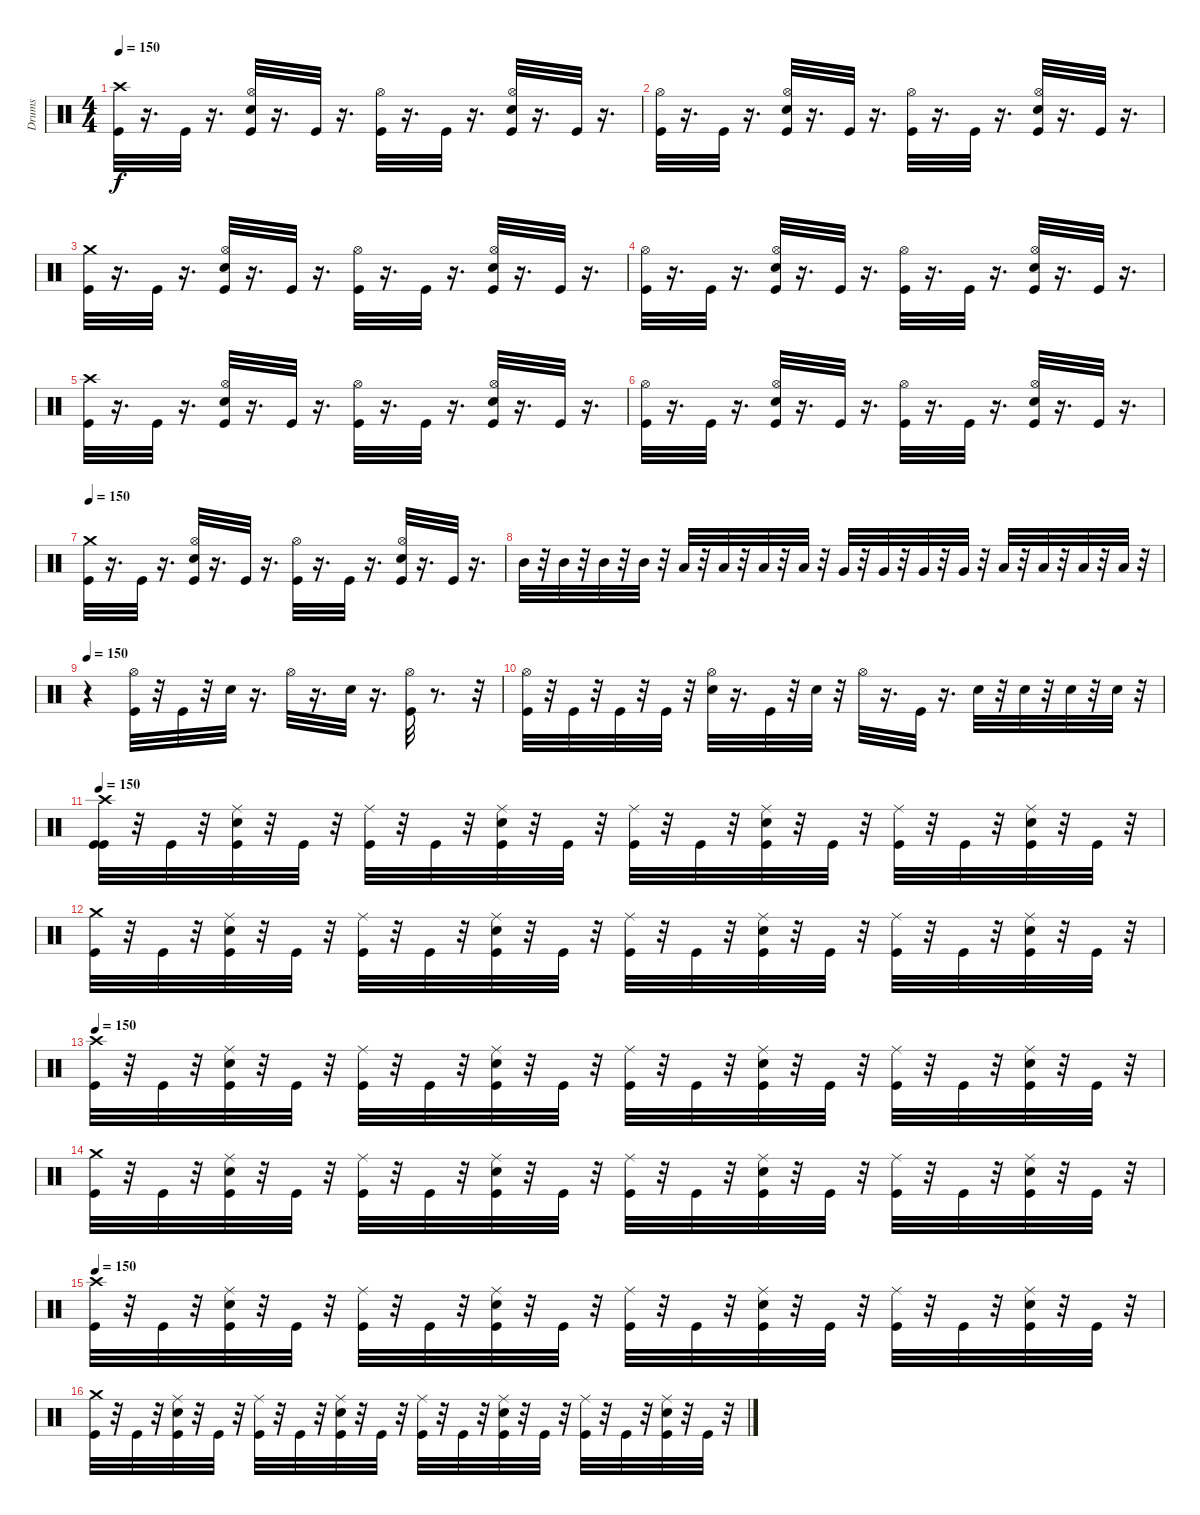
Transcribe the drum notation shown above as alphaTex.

\track ("Drums" "Drums") {instrument percussion}
\staff {score}
\articulation defaults
\ts (4 4)
\tempo 150
\clef neutral
\ks c
("Crash high (hit)" "Kick (hit)").32{dy f} r.16{d} "Kick (hit)".32 r.16{d} ("Hi-Hat (open)" "Electric Snare (hit)" "Kick (hit)").32 r.16{d} "Kick (hit)".32 r.16{d} ("Hi-Hat (open)" "Kick (hit)").32 r.16{d} "Kick (hit)".32 r.16{d} ("Hi-Hat (open)" "Electric Snare (hit)" "Kick (hit)").32 r.16{d} "Kick (hit)".32 r.16{d} |
("Hi-Hat (open)" "Kick (hit)").32 r.16{d} "Kick (hit)".32 r.16{d} ("Hi-Hat (open)" "Electric Snare (hit)" "Kick (hit)").32 r.16{d} "Kick (hit)".32 r.16{d} ("Hi-Hat (open)" "Kick (hit)").32 r.16{d} "Kick (hit)".32 r.16{d} ("Hi-Hat (open)" "Electric Snare (hit)" "Kick (hit)").32 r.16{d} "Kick (hit)".32 r.16{d} |
("Crash medium (hit)" "Kick (hit)").32 r.16{d} "Kick (hit)".32 r.16{d} ("Hi-Hat (open)" "Electric Snare (hit)" "Kick (hit)").32 r.16{d} "Kick (hit)".32 r.16{d} ("Hi-Hat (open)" "Kick (hit)").32 r.16{d} "Kick (hit)".32 r.16{d} ("Hi-Hat (open)" "Electric Snare (hit)" "Kick (hit)").32 r.16{d} "Kick (hit)".32 r.16{d} |
("Hi-Hat (open)" "Kick (hit)").32 r.16{d} "Kick (hit)".32 r.16{d} ("Hi-Hat (open)" "Electric Snare (hit)" "Kick (hit)").32 r.16{d} "Kick (hit)".32 r.16{d} ("Hi-Hat (open)" "Kick (hit)").32 r.16{d} "Kick (hit)".32 r.16{d} ("Hi-Hat (open)" "Electric Snare (hit)" "Kick (hit)").32 r.16{d} "Kick (hit)".32 r.16{d} |
("Crash high (hit)" "Kick (hit)").32 r.16{d} "Kick (hit)".32 r.16{d} ("Hi-Hat (open)" "Electric Snare (hit)" "Kick (hit)").32 r.16{d} "Kick (hit)".32 r.16{d} ("Hi-Hat (open)" "Kick (hit)").32 r.16{d} "Kick (hit)".32 r.16{d} ("Hi-Hat (open)" "Electric Snare (hit)" "Kick (hit)").32 r.16{d} "Kick (hit)".32 r.16{d} |
("Hi-Hat (open)" "Kick (hit)").32 r.16{d} "Kick (hit)".32 r.16{d} ("Hi-Hat (open)" "Electric Snare (hit)" "Kick (hit)").32 r.16{d} "Kick (hit)".32 r.16{d} ("Hi-Hat (open)" "Kick (hit)").32 r.16{d} "Kick (hit)".32 r.16{d} ("Hi-Hat (open)" "Electric Snare (hit)" "Kick (hit)").32 r.16{d} "Kick (hit)".32 r.16{d} |
\tempo 150
("Crash medium (hit)" "Kick (hit)").32 r.16{d} "Kick (hit)".32 r.16{d} ("Hi-Hat (open)" "Electric Snare (hit)" "Kick (hit)").32 r.16{d} "Kick (hit)".32 r.16{d} ("Hi-Hat (open)" "Kick (hit)").32 r.16{d} "Kick (hit)".32 r.16{d} ("Hi-Hat (open)" "Electric Snare (hit)" "Kick (hit)").32 r.16{d} "Kick (hit)".32 r.16{d} |
"Mid Tom (hit)".32 r.32 "Mid Tom (hit)".32 r.32 "Mid Tom (hit)".32 r.32 "Mid Tom (hit)".32 r.32 "Low Tom (hit)".32 r.32 "Low Tom (hit)".32 r.32 "Low Tom (hit)".32 r.32 "Low Tom (hit)".32 r.32 "Very Low Tom (hit)".32 r.32 "Very Low Tom (hit)".32 r.32 "Very Low Tom (hit)".32 r.32 "Very Low Tom (hit)".32 r.32 "Low Floor Tom (hit)".32 r.32 "Low Floor Tom (hit)".32 r.32 "Low Floor Tom (hit)".32 r.32 "Low Floor Tom (hit)".32 r.32 |
\tempo 150
r.4 ("Hi-Hat (open)" "Kick (hit)").32 r.32 "Kick (hit)".32 r.32 "Electric Snare (hit)".32 r.16{d} "Hi-Hat (open)".32 r.16{d} "Electric Snare (hit)".32 r.16{d} ("Hi-Hat (open)" "Kick (hit)").32 r.8{d} r.32 |
("Hi-Hat (open)" "Kick (hit)").32 r.32 "Kick (hit)".32 r.32 "Kick (hit)".32 r.32 "Kick (hit)".32 r.32 ("Hi-Hat (open)" "Electric Snare (hit)").32 r.16{d} "Kick (hit)".32 r.32 "Electric Snare (hit)".32 r.32 "Hi-Hat (open)".32 r.16{d} "Kick (hit)".32 r.16{d} "Electric Snare (hit)".32 r.32 "Electric Snare (hit)".32 r.32 "Electric Snare (hit)".32 r.32 "Electric Snare (hit)".32 r.32 |
\tempo 150
("Kick (hit)" "Crash high (hit)" "Kick (hit)").32 r.32 "Kick (hit)".32 r.32 ("Ride (middle)" "Electric Snare (hit)" "Kick (hit)").32 r.32 "Kick (hit)".32 r.32 ("Ride (middle)" "Kick (hit)").32 r.32 "Kick (hit)".32 r.32 ("Ride (middle)" "Electric Snare (hit)" "Kick (hit)").32 r.32 "Kick (hit)".32 r.32 ("Ride (middle)" "Kick (hit)").32 r.32 "Kick (hit)".32 r.32 ("Ride (middle)" "Electric Snare (hit)" "Kick (hit)").32 r.32 "Kick (hit)".32 r.32 ("Ride (middle)" "Kick (hit)").32 r.32 "Kick (hit)".32 r.32 ("Ride (middle)" "Electric Snare (hit)" "Kick (hit)").32 r.32 "Kick (hit)".32 r.32 |
("Crash medium (hit)" "Kick (hit)").32 r.32 "Kick (hit)".32 r.32 ("Ride (middle)" "Electric Snare (hit)" "Kick (hit)").32 r.32 "Kick (hit)".32 r.32 ("Ride (middle)" "Kick (hit)").32 r.32 "Kick (hit)".32 r.32 ("Ride (middle)" "Electric Snare (hit)" "Kick (hit)").32 r.32 "Kick (hit)".32 r.32 ("Ride (middle)" "Kick (hit)").32 r.32 "Kick (hit)".32 r.32 ("Ride (middle)" "Electric Snare (hit)" "Kick (hit)").32 r.32 "Kick (hit)".32 r.32 ("Ride (middle)" "Kick (hit)").32 r.32 "Kick (hit)".32 r.32 ("Ride (middle)" "Electric Snare (hit)" "Kick (hit)").32 r.32 "Kick (hit)".32 r.32 |
\tempo 150
("Crash high (hit)" "Kick (hit)").32 r.32 "Kick (hit)".32 r.32 ("Ride (middle)" "Electric Snare (hit)" "Kick (hit)").32 r.32 "Kick (hit)".32 r.32 ("Ride (middle)" "Kick (hit)").32 r.32 "Kick (hit)".32 r.32 ("Ride (middle)" "Electric Snare (hit)" "Kick (hit)").32 r.32 "Kick (hit)".32 r.32 ("Ride (middle)" "Kick (hit)").32 r.32 "Kick (hit)".32 r.32 ("Ride (middle)" "Electric Snare (hit)" "Kick (hit)").32 r.32 "Kick (hit)".32 r.32 ("Ride (middle)" "Kick (hit)").32 r.32 "Kick (hit)".32 r.32 ("Ride (middle)" "Electric Snare (hit)" "Kick (hit)").32 r.32 "Kick (hit)".32 r.32 |
("Kick (hit)" "Crash medium (hit)").32 r.32 "Kick (hit)".32 r.32 ("Kick (hit)" "Electric Snare (hit)" "Ride (middle)").32 r.32 "Kick (hit)".32 r.32 ("Kick (hit)" "Ride (middle)").32 r.32 "Kick (hit)".32 r.32 ("Kick (hit)" "Electric Snare (hit)" "Ride (middle)").32 r.32 "Kick (hit)".32 r.32 ("Kick (hit)" "Ride (middle)").32 r.32 "Kick (hit)".32 r.32 ("Kick (hit)" "Electric Snare (hit)" "Ride (middle)").32 r.32 "Kick (hit)".32 r.32 ("Kick (hit)" "Ride (middle)").32 r.32 "Kick (hit)".32 r.32 ("Kick (hit)" "Electric Snare (hit)" "Ride (middle)").32 r.32 "Kick (hit)".32 r.32 |
\tempo 150
("Crash high (hit)" "Kick (hit)").32 r.32 "Kick (hit)".32 r.32 ("Ride (middle)" "Electric Snare (hit)" "Kick (hit)").32 r.32 "Kick (hit)".32 r.32 ("Ride (middle)" "Kick (hit)").32 r.32 "Kick (hit)".32 r.32 ("Ride (middle)" "Electric Snare (hit)" "Kick (hit)").32 r.32 "Kick (hit)".32 r.32 ("Ride (middle)" "Kick (hit)").32 r.32 "Kick (hit)".32 r.32 ("Ride (middle)" "Electric Snare (hit)" "Kick (hit)").32 r.32 "Kick (hit)".32 r.32 ("Ride (middle)" "Kick (hit)").32 r.32 "Kick (hit)".32 r.32 ("Ride (middle)" "Electric Snare (hit)" "Kick (hit)").32 r.32 "Kick (hit)".32 r.32 |
("Kick (hit)" "Crash medium (hit)").32 r.32 "Kick (hit)".32 r.32 ("Kick (hit)" "Electric Snare (hit)" "Ride (middle)").32 r.32 "Kick (hit)".32 r.32 ("Kick (hit)" "Ride (middle)").32 r.32 "Kick (hit)".32 r.32 ("Kick (hit)" "Ride (middle)" "Electric Snare (hit)").32 r.32 "Kick (hit)".32 r.32 ("Kick (hit)" "Ride (middle)").32 r.32 "Kick (hit)".32 r.32 ("Kick (hit)" "Electric Snare (hit)" "Ride (middle)").32 r.32 "Kick (hit)".32 r.32 ("Kick (hit)" "Ride (middle)").32 r.32 "Kick (hit)".32 r.32 ("Kick (hit)" "Electric Snare (hit)" "Ride (middle)").32 r.32 "Kick (hit)".32 r.32
